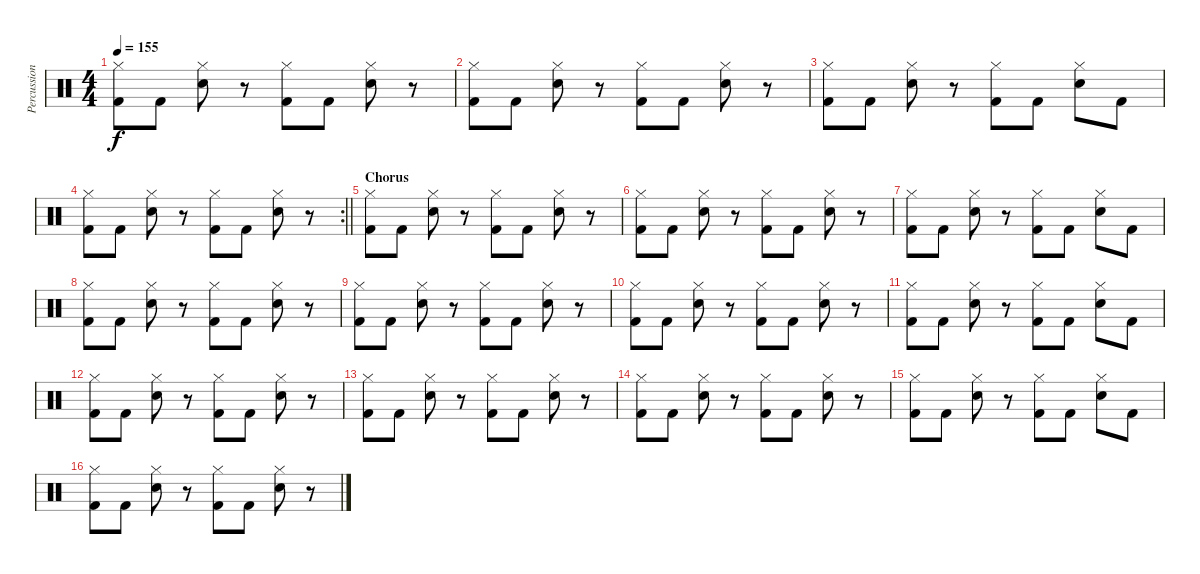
\track ("Percussions" "Percussion") {mute instrument percussion}
\staff {score}
\articulation defaults
\ts (4 4)
\tempo 155
\clef neutral
\ks c
("Hi-Hat (closed)" "Kick (hit) 2").8{dy f} "Kick (hit) 2".8 ("Hi-Hat (closed)" "Electric Snare (hit)").8 r.8 ("Hi-Hat (closed)" "Kick (hit) 2").8 "Kick (hit) 2".8 ("Hi-Hat (closed)" "Electric Snare (hit)").8 r.8 |
("Hi-Hat (closed)" "Kick (hit) 2").8 "Kick (hit) 2".8 ("Hi-Hat (closed)" "Electric Snare (hit)").8 r.8 ("Hi-Hat (closed)" "Kick (hit) 2").8 "Kick (hit) 2".8 ("Hi-Hat (closed)" "Electric Snare (hit)").8 r.8 |
("Hi-Hat (closed)" "Kick (hit) 2").8 "Kick (hit) 2".8 ("Hi-Hat (closed)" "Electric Snare (hit)").8 r.8 ("Hi-Hat (closed)" "Kick (hit) 2").8 "Kick (hit) 2".8 ("Hi-Hat (closed)" "Electric Snare (hit)").8 "Kick (hit) 2".8 |
\rc 2
\barLineRight lightlight
("Hi-Hat (closed)" "Kick (hit) 2").8 "Kick (hit) 2".8 ("Hi-Hat (closed)" "Electric Snare (hit)").8 r.8 ("Hi-Hat (closed)" "Kick (hit) 2").8 "Kick (hit) 2".8 ("Hi-Hat (closed)" "Electric Snare (hit)").8 r.8 |
\section ("" "Chorus")
("Hi-Hat (closed)" "Kick (hit) 2").8 "Kick (hit) 2".8 ("Hi-Hat (closed)" "Electric Snare (hit)").8 r.8 ("Hi-Hat (closed)" "Kick (hit) 2").8 "Kick (hit) 2".8 ("Hi-Hat (closed)" "Electric Snare (hit)").8 r.8 |
("Hi-Hat (closed)" "Kick (hit) 2").8 "Kick (hit) 2".8 ("Hi-Hat (closed)" "Electric Snare (hit)").8 r.8 ("Hi-Hat (closed)" "Kick (hit) 2").8 "Kick (hit) 2".8 ("Hi-Hat (closed)" "Electric Snare (hit)").8 r.8 |
("Hi-Hat (closed)" "Kick (hit) 2").8 "Kick (hit) 2".8 ("Hi-Hat (closed)" "Electric Snare (hit)").8 r.8 ("Hi-Hat (closed)" "Kick (hit) 2").8 "Kick (hit) 2".8 ("Hi-Hat (closed)" "Electric Snare (hit)").8 "Kick (hit) 2".8 |
("Hi-Hat (closed)" "Kick (hit) 2").8 "Kick (hit) 2".8 ("Hi-Hat (closed)" "Electric Snare (hit)").8 r.8 ("Hi-Hat (closed)" "Kick (hit) 2").8 "Kick (hit) 2".8 ("Hi-Hat (closed)" "Electric Snare (hit)").8 r.8 |
("Hi-Hat (closed)" "Kick (hit) 2").8 "Kick (hit) 2".8 ("Hi-Hat (closed)" "Electric Snare (hit)").8 r.8 ("Hi-Hat (closed)" "Kick (hit) 2").8 "Kick (hit) 2".8 ("Hi-Hat (closed)" "Electric Snare (hit)").8 r.8 |
("Hi-Hat (closed)" "Kick (hit) 2").8 "Kick (hit) 2".8 ("Hi-Hat (closed)" "Electric Snare (hit)").8 r.8 ("Hi-Hat (closed)" "Kick (hit) 2").8 "Kick (hit) 2".8 ("Hi-Hat (closed)" "Electric Snare (hit)").8 r.8 |
("Hi-Hat (closed)" "Kick (hit) 2").8 "Kick (hit) 2".8 ("Hi-Hat (closed)" "Electric Snare (hit)").8 r.8 ("Hi-Hat (closed)" "Kick (hit) 2").8 "Kick (hit) 2".8 ("Hi-Hat (closed)" "Electric Snare (hit)").8 "Kick (hit) 2".8 |
("Hi-Hat (closed)" "Kick (hit) 2").8 "Kick (hit) 2".8 ("Hi-Hat (closed)" "Electric Snare (hit)").8 r.8 ("Hi-Hat (closed)" "Kick (hit) 2").8 "Kick (hit) 2".8 ("Hi-Hat (closed)" "Electric Snare (hit)").8 r.8 |
("Hi-Hat (closed)" "Kick (hit) 2").8 "Kick (hit) 2".8 ("Hi-Hat (closed)" "Electric Snare (hit)").8 r.8 ("Hi-Hat (closed)" "Kick (hit) 2").8 "Kick (hit) 2".8 ("Hi-Hat (closed)" "Electric Snare (hit)").8 r.8 |
("Hi-Hat (closed)" "Kick (hit) 2").8 "Kick (hit) 2".8 ("Hi-Hat (closed)" "Electric Snare (hit)").8 r.8 ("Hi-Hat (closed)" "Kick (hit) 2").8 "Kick (hit) 2".8 ("Hi-Hat (closed)" "Electric Snare (hit)").8 r.8 |
("Hi-Hat (closed)" "Kick (hit) 2").8 "Kick (hit) 2".8 ("Hi-Hat (closed)" "Electric Snare (hit)").8 r.8 ("Hi-Hat (closed)" "Kick (hit) 2").8 "Kick (hit) 2".8 ("Hi-Hat (closed)" "Electric Snare (hit)").8 "Kick (hit) 2".8 |
("Hi-Hat (closed)" "Kick (hit) 2").8 "Kick (hit) 2".8 ("Hi-Hat (closed)" "Electric Snare (hit)").8 r.8 ("Hi-Hat (closed)" "Kick (hit) 2").8 "Kick (hit) 2".8 ("Hi-Hat (closed)" "Electric Snare (hit)").8 r.8
